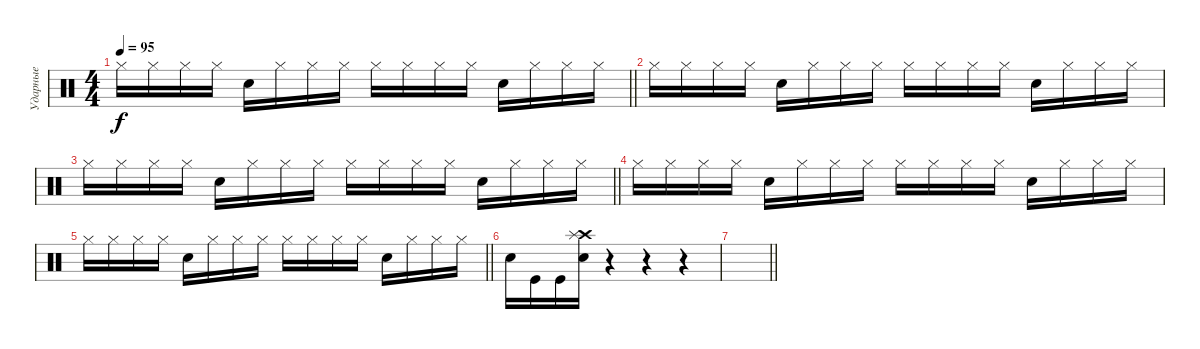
\track ("Ударные" "Ударные") {instrument percussion}
\staff {score}
\articulation defaults
\ts (4 4)
\tempo 95
\clef neutral
\barLineRight lightlight
\ks c "Hi-Hat (closed)".16{dy f} "Hi-Hat (closed)".16 "Hi-Hat (closed)".16 "Hi-Hat (closed)".16 "Snare (hit) 2".16 "Hi-Hat (closed)".16 "Hi-Hat (closed)".16 "Hi-Hat (closed)".16 "Hi-Hat (closed)".16 "Hi-Hat (closed)".16 "Hi-Hat (closed)".16 "Hi-Hat (closed)".16 "Snare (hit) 2".16 "Hi-Hat (closed)".16 "Hi-Hat (closed)".16 "Hi-Hat (closed)".16
|
"Hi-Hat (closed)".16 "Hi-Hat (closed)".16 "Hi-Hat (closed)".16 "Hi-Hat (closed)".16 "Snare (hit) 2".16 "Hi-Hat (closed)".16 "Hi-Hat (closed)".16 "Hi-Hat (closed)".16 "Hi-Hat (closed)".16 "Hi-Hat (closed)".16 "Hi-Hat (closed)".16 "Hi-Hat (closed)".16 "Snare (hit) 2".16 "Hi-Hat (closed)".16 "Hi-Hat (closed)".16 "Hi-Hat (closed)".16 |
\barLineRight lightlight "Hi-Hat (closed)".16 "Hi-Hat (closed)".16 "Hi-Hat (closed)".16 "Hi-Hat (closed)".16 "Snare (hit) 2".16 "Hi-Hat (closed)".16 "Hi-Hat (closed)".16 "Hi-Hat (closed)".16 "Hi-Hat (closed)".16 "Hi-Hat (closed)".16 "Hi-Hat (closed)".16 "Hi-Hat (closed)".16 "Snare (hit) 2".16 "Hi-Hat (closed)".16 "Hi-Hat (closed)".16 "Hi-Hat (closed)".16
|
"Hi-Hat (closed)".16 "Hi-Hat (closed)".16 "Hi-Hat (closed)".16 "Hi-Hat (closed)".16 "Snare (hit) 2".16 "Hi-Hat (closed)".16 "Hi-Hat (closed)".16 "Hi-Hat (closed)".16 "Hi-Hat (closed)".16 "Hi-Hat (closed)".16 "Hi-Hat (closed)".16 "Hi-Hat (closed)".16 "Snare (hit) 2".16 "Hi-Hat (closed)".16 "Hi-Hat (closed)".16 "Hi-Hat (closed)".16 |
\barLineRight lightlight "Hi-Hat (closed)".16 "Hi-Hat (closed)".16 "Hi-Hat (closed)".16 "Hi-Hat (closed)".16 "Snare (hit) 2".16 "Hi-Hat (closed)".16 "Hi-Hat (closed)".16 "Hi-Hat (closed)".16 "Hi-Hat (closed)".16 "Hi-Hat (closed)".16 "Hi-Hat (closed)".16 "Hi-Hat (closed)".16 "Snare (hit) 2".16 "Hi-Hat (closed)".16 "Hi-Hat (closed)".16 "Hi-Hat (closed)".16
|
"Snare (hit) 2".16 "Kick (hit)".16 "Kick (hit)".16 ("Crash high (hit)" "Splash (hit)" "Snare (hit) 2").16 r.4 r.4 r.4 |
\barLineRight lightlight
